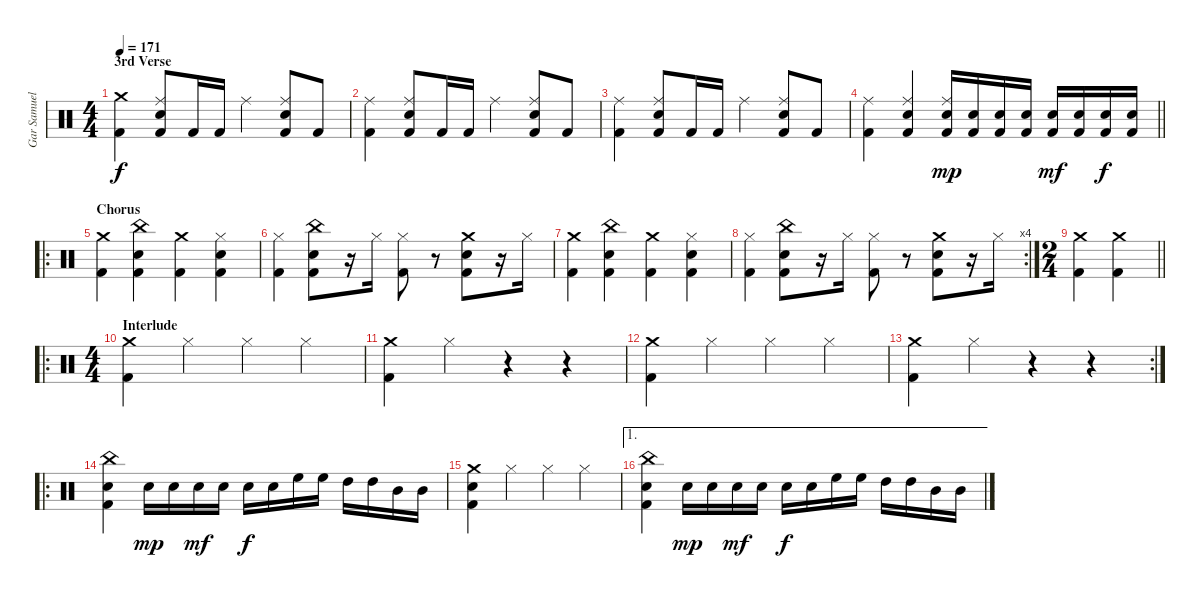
\track ("Gar Samuelson" "Gar Samuel") {instrument percussion}
\staff {score}
\articulation defaults
\ts (4 4)
\section ("" "3rd Verse")
\tempo 171
\clef neutral
\ks c
("Crash medium (hit)" "Kick (hit) 2").4{dy f} ("Ride (middle)" "Snare (hit) 2" "Kick (hit) 2").8 "Kick (hit) 2".16 "Kick (hit) 2".16 "Ride (middle)".4 ("Ride (middle)" "Snare (hit) 2" "Kick (hit) 2").8 "Kick (hit) 2".8 |
("Ride (middle)" "Kick (hit) 2").4 ("Ride (middle)" "Snare (hit) 2" "Kick (hit) 2").8 "Kick (hit) 2".16 "Kick (hit) 2".16 "Ride (middle)".4 ("Ride (middle)" "Snare (hit) 2" "Kick (hit) 2").8 "Kick (hit) 2".8 |
("Ride (middle)" "Kick (hit) 2").4 ("Ride (middle)" "Snare (hit) 2" "Kick (hit) 2").8 "Kick (hit) 2".16 "Kick (hit) 2".16 "Ride (middle)".4 ("Ride (middle)" "Snare (hit) 2" "Kick (hit) 2").8 "Kick (hit) 2".8 |
\barLineRight lightlight
("Ride (middle)" "Kick (hit) 2").4 ("Ride (middle)" "Snare (hit) 2" "Kick (hit) 2").4 ("Ride (middle)" "Snare (hit) 2" "Kick (hit) 2").16{dy mp} ("Snare (hit) 2" "Kick (hit) 2").16 ("Snare (hit) 2" "Kick (hit) 2").16 ("Snare (hit) 2" "Kick (hit) 2").16 ("Snare (hit) 2" "Kick (hit) 2").16{dy mf} ("Snare (hit) 2" "Kick (hit) 2").16 ("Snare (hit) 2" "Kick (hit) 2").16{dy f} ("Snare (hit) 2" "Kick (hit) 2").16 |
\ro
\section ("" "Chorus")
("Crash medium (hit)" "Kick (hit) 2").4 ("China (hit)" "Snare (hit) 2" "Kick (hit) 2").4 ("Crash medium (hit)" "Kick (hit) 2").4 ("Hi-Hat (closed)" "Snare (hit) 2" "Kick (hit) 2").4 |
("Hi-Hat (closed)" "Kick (hit) 2").4 ("China (hit)" "Snare (hit) 2" "Kick (hit) 2").8 r.16 "Hi-Hat (closed)".16 ("Hi-Hat (closed)" "Kick (hit) 2").8 r.8 ("Crash medium (hit)" "Snare (hit) 2" "Kick (hit) 2").8 r.16 "Hi-Hat (closed)".16 |
("Crash medium (hit)" "Kick (hit) 2").4 ("China (hit)" "Snare (hit) 2" "Kick (hit) 2").4 ("Crash medium (hit)" "Kick (hit) 2").4 ("Hi-Hat (closed)" "Snare (hit) 2" "Kick (hit) 2").4 |
\rc 4
("Hi-Hat (closed)" "Kick (hit) 2").4 ("China (hit)" "Snare (hit) 2" "Kick (hit) 2").8 r.16 "Hi-Hat (closed)".16 ("Hi-Hat (closed)" "Kick (hit) 2").8 r.8 ("Crash medium (hit)" "Snare (hit) 2" "Kick (hit) 2").8 r.16 "Hi-Hat (closed)".16 |
\ts (2 4)
\barLineRight lightlight
("Crash medium (hit)" "Kick (hit) 2").4 ("Crash medium (hit)" "Kick (hit) 2").4 |
\ro
\ts (4 4)
\section ("" "Interlude")
("Crash medium (hit)" "Kick (hit) 2").4{volume 13} "Hi-Hat (closed)".4 "Hi-Hat (closed)".4 "Hi-Hat (closed)".4 |
("Crash medium (hit)" "Kick (hit) 2").4{volume 0} "Hi-Hat (closed)".4 r.4{volume 13} r.4 |
("Crash medium (hit)" "Kick (hit) 2").4{volume 13} "Hi-Hat (closed)".4 "Hi-Hat (closed)".4 "Hi-Hat (closed)".4 |
\rc 2
("Crash medium (hit)" "Kick (hit) 2").4{volume 0} "Hi-Hat (closed)".4 r.4{volume 13} r.4 |
\ro
("China (hit)" "Snare (hit) 2" "Kick (hit) 2").4{volume 13} "Snare (hit) 2".16{dy mp} "Snare (hit) 2".16 "Snare (hit) 2".16{dy mf} "Snare (hit) 2".16 "Snare (hit) 2".16{dy f} "Snare (hit) 2".16 "High Floor Tom (hit)".16 "High Floor Tom (hit)".16 "High Tom (hit)".16 "High Tom (hit)".16 "Mid Tom (hit)".16 "Mid Tom (hit)".16 |
("Crash medium (hit)" "Snare (hit) 2" "Kick (hit) 2").4 "Hi-Hat (closed)".4 "Hi-Hat (closed)".4 "Hi-Hat (closed)".4 |
\ae 1
("China (hit)" "Snare (hit) 2" "Kick (hit) 2").4 "Snare (hit) 2".16{dy mp} "Snare (hit) 2".16 "Snare (hit) 2".16{dy mf} "Snare (hit) 2".16 "Snare (hit) 2".16{dy f} "Snare (hit) 2".16 "High Floor Tom (hit)".16 "High Floor Tom (hit)".16 "High Tom (hit)".16 "High Tom (hit)".16 "Mid Tom (hit)".16 "Mid Tom (hit)".16
